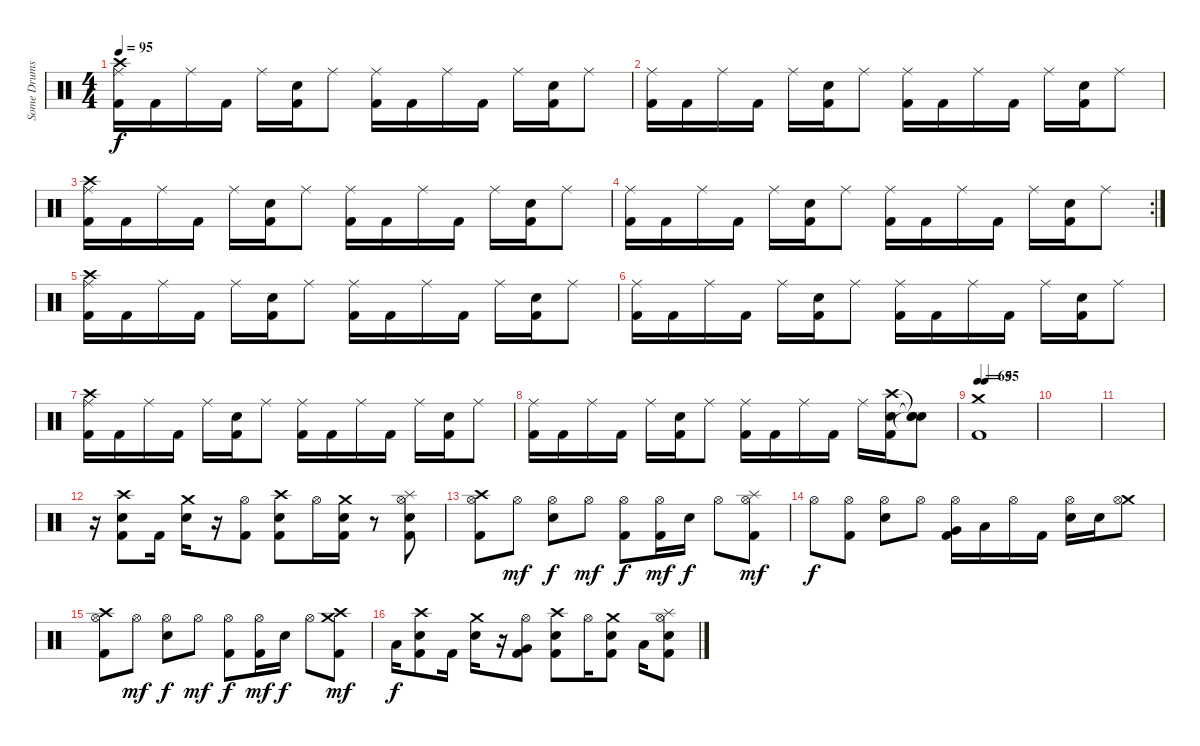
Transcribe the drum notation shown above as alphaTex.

\track ("Some Drums" "Some Drums") {instrument percussion}
\staff {score}
\articulation defaults
\ts (4 4)
\tempo 95
\clef neutral
\ks c
("Crash high (hit)" "Ride (middle)" "Kick (hit) 2").16{dy f} "Kick (hit) 2".16 "Ride (middle)".16 "Kick (hit) 2".16 "Ride (middle)".16 ("Electric Snare (hit)" "Kick (hit) 2").16 "Ride (middle)".8 ("Ride (middle)" "Kick (hit) 2").16 "Kick (hit) 2".16 "Ride (middle)".16 "Kick (hit) 2".16 "Ride (middle)".16 ("Electric Snare (hit)" "Kick (hit) 2").16 "Ride (middle)".8 |
("Ride (middle)" "Kick (hit) 2").16 "Kick (hit) 2".16 "Ride (middle)".16 "Kick (hit) 2".16 "Ride (middle)".16 ("Electric Snare (hit)" "Kick (hit) 2").16 "Ride (middle)".8 ("Ride (middle)" "Kick (hit) 2").16 "Kick (hit) 2".16 "Ride (middle)".16 "Kick (hit) 2".16 "Ride (middle)".16 ("Electric Snare (hit)" "Kick (hit) 2").16 "Ride (middle)".8 |
("Crash high (hit)" "Ride (middle)" "Kick (hit) 2").16 "Kick (hit) 2".16 "Ride (middle)".16 "Kick (hit) 2".16 "Ride (middle)".16 ("Electric Snare (hit)" "Kick (hit) 2").16 "Ride (middle)".8 ("Ride (middle)" "Kick (hit) 2").16 "Kick (hit) 2".16 "Ride (middle)".16 "Kick (hit) 2".16 "Ride (middle)".16 ("Electric Snare (hit)" "Kick (hit) 2").16 "Ride (middle)".8 |
\rc 2
("Ride (middle)" "Kick (hit) 2").16 "Kick (hit) 2".16 "Ride (middle)".16 "Kick (hit) 2".16 "Ride (middle)".16 ("Electric Snare (hit)" "Kick (hit) 2").16 "Ride (middle)".8 ("Ride (middle)" "Kick (hit) 2").16 "Kick (hit) 2".16 "Ride (middle)".16 "Kick (hit) 2".16 "Ride (middle)".16 ("Electric Snare (hit)" "Kick (hit) 2").16 "Ride (middle)".8 |
("Crash high (hit)" "Ride (middle)" "Kick (hit) 2").16 "Kick (hit) 2".16 "Ride (middle)".16 "Kick (hit) 2".16 "Ride (middle)".16 ("Electric Snare (hit)" "Kick (hit) 2").16 "Ride (middle)".8 ("Ride (middle)" "Kick (hit) 2").16 "Kick (hit) 2".16 "Ride (middle)".16 "Kick (hit) 2".16 "Ride (middle)".16 ("Electric Snare (hit)" "Kick (hit) 2").16 "Ride (middle)".8 |
("Ride (middle)" "Kick (hit) 2").16 "Kick (hit) 2".16 "Ride (middle)".16 "Kick (hit) 2".16 "Ride (middle)".16 ("Electric Snare (hit)" "Kick (hit) 2").16 "Ride (middle)".8 ("Ride (middle)" "Kick (hit) 2").16 "Kick (hit) 2".16 "Ride (middle)".16 "Kick (hit) 2".16 "Ride (middle)".16 ("Electric Snare (hit)" "Kick (hit) 2").16 "Ride (middle)".8 |
("Crash high (hit)" "Ride (middle)" "Kick (hit) 2").16 "Kick (hit) 2".16 "Ride (middle)".16 "Kick (hit) 2".16 "Ride (middle)".16 ("Electric Snare (hit)" "Kick (hit) 2").16 "Ride (middle)".8 ("Ride (middle)" "Kick (hit) 2").16 "Kick (hit) 2".16 "Ride (middle)".16 "Kick (hit) 2".16 "Ride (middle)".16 ("Electric Snare (hit)" "Kick (hit) 2").16 "Ride (middle)".8 |
("Ride (middle)" "Kick (hit) 2").16 "Kick (hit) 2".16 "Ride (middle)".16 "Kick (hit) 2".16 "Ride (middle)".16 ("Electric Snare (hit)" "Kick (hit) 2").16 "Ride (middle)".8 ("Ride (middle)" "Kick (hit) 2").16 "Kick (hit) 2".16 "Ride (middle)".16 "Kick (hit) 2".16 "Ride (middle)".16 ("Crash high (hit)" "Electric Snare (hit)" "Kick (hit) 2").16 ("Snare (hit)"{t} "Snare (hit)"{t} "Snare (hit)"{t}).8 |
\tempo 65
\tempo (95 0.125)
("Crash medium (hit)" "Kick (hit) 2").1 |
|
|
r.16 ("Crash high (hit)" "Electric Snare (hit)" "Kick (hit) 2").8 "Kick (hit) 2".16 ("Crash medium (hit)" "Electric Snare (hit)").16 r.16 ("Hi-Hat (open)" "Kick (hit) 2").8 ("Crash high (hit)" "Electric Snare (hit)" "Kick (hit) 2").8 "Hi-Hat (open)".16 ("Crash medium (hit)" "Electric Snare (hit)" "Kick (hit) 2").16 r.8 ("Splash (hit)" "Hi-Hat (open)" "Electric Snare (hit)" "Kick (hit) 2").8 |
("Crash high (hit)" "Hi-Hat (open)" "Kick (hit) 2").8 "Hi-Hat (open)".8{dy mf} ("Hi-Hat (open)" "Electric Snare (hit)").8{dy f} "Hi-Hat (open)".8{dy mf} ("Hi-Hat (open)" "Kick (hit) 2").8{dy f} ("Hi-Hat (open)" "Kick (hit) 2").16{dy mf} "Electric Snare (hit)".16{dy f} "Hi-Hat (open)".8 ("Splash (hit)" "Hi-Hat (open)" "Kick (hit) 2").8{dy mf} |
"Hi-Hat (open)".8{dy f} ("Hi-Hat (open)" "Kick (hit) 2").8 ("Hi-Hat (open)" "Electric Snare (hit)").8 "Hi-Hat (open)".8 ("Hi-Hat (open)" "Very Low Tom (hit)" "Kick (hit) 2").16 "Low Floor Tom (hit)".16 "Hi-Hat (open)".16 "Kick (hit) 2".16 ("Hi-Hat (open)" "Electric Snare (hit)").16 "Electric Snare (hit)".16 ("Crash medium (hit)" "Hi-Hat (open)").8 |
("Crash high (hit)" "Hi-Hat (open)" "Kick (hit) 2").8 "Hi-Hat (open)".8{dy mf} ("Hi-Hat (open)" "Electric Snare (hit)").8{dy f} "Hi-Hat (open)".8{dy mf} ("Hi-Hat (open)" "Kick (hit) 2").8{dy f} ("Hi-Hat (open)" "Kick (hit) 2").16{dy mf} "Electric Snare (hit)".16{dy f} "Hi-Hat (open)".8 ("Crash medium (hit)" "Crash high (hit)" "Kick (hit) 2").8{dy mf} |
"Low Tom (hit)".16{dy f} ("Crash high (hit)" "Electric Snare (hit)" "Kick (hit) 2").8 "Kick (hit) 2".16 ("Crash medium (hit)" "Electric Snare (hit)").16 r.16 ("Hi-Hat (open)" "Very Low Tom (hit)" "Kick (hit) 2").8 ("Crash high (hit)" "Electric Snare (hit)" "Kick (hit) 2").8 "Hi-Hat (open)".16 ("Crash medium (hit)" "Electric Snare (hit)" "Kick (hit) 2").8 "Low Tom (hit)".16 ("Splash (hit)" "Hi-Hat (open)" "Electric Snare (hit)" "Kick (hit) 2").8
